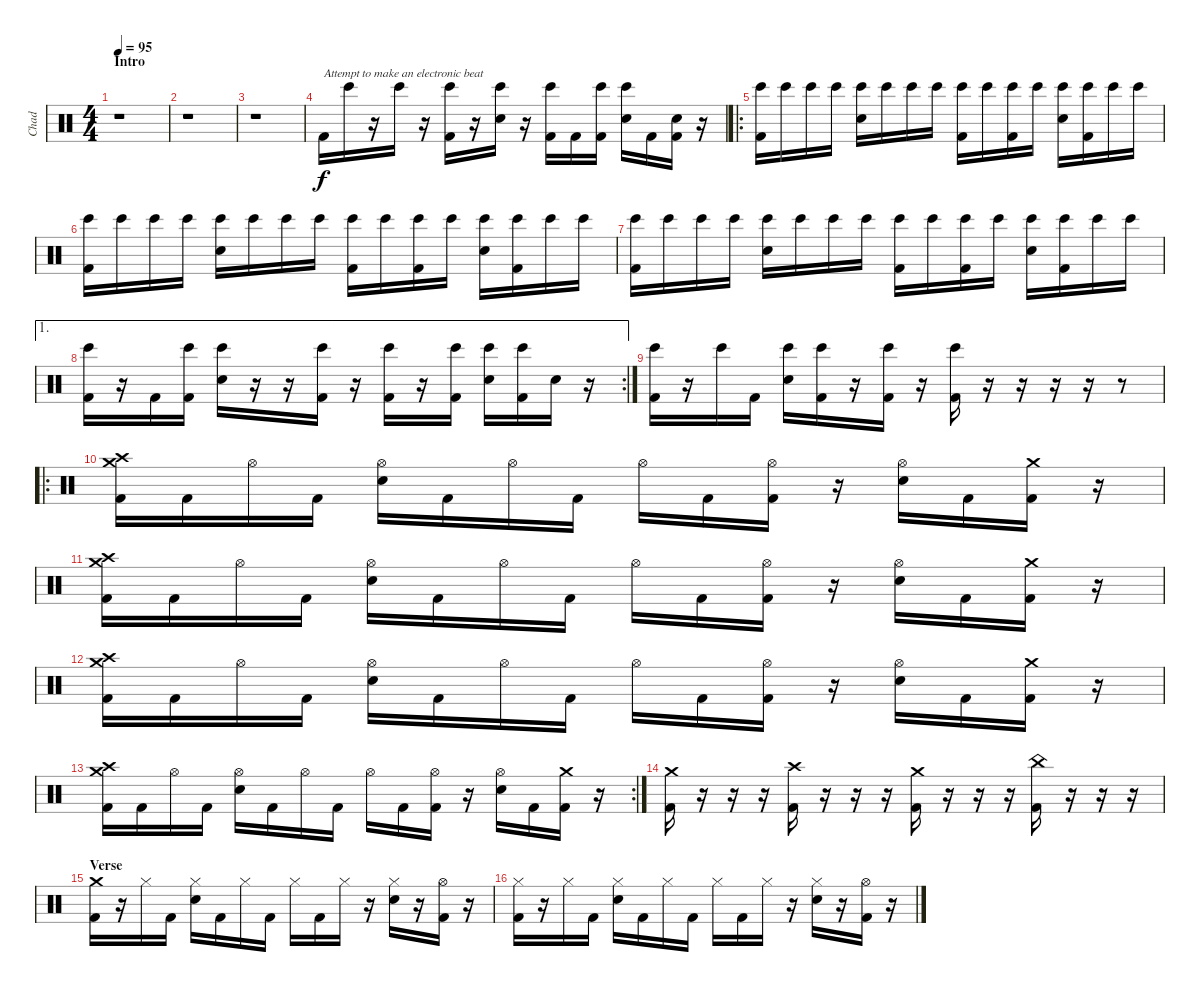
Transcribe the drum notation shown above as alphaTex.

\track ("Chad" "Chad") {instrument percussion}
\staff {score}
\articulation defaults
\ts (4 4)
\section ("" "Intro")
\tempo 95
\clef neutral
\ks c
r.1{dy f} |
r.1 |
r.1 |
"Kick (hit) 2".16{txt "Attempt to make an electronic beat" volume 10} "Bongo High (hit)".16 r.16 "Bongo High (hit)".16 r.16 ("Kick (hit) 2" "Bongo High (hit)").16 r.16 ("Bongo High (hit)" "Electric Snare (hit)").16 r.16 ("Kick (hit) 2" "Bongo High (hit)").16 "Kick (hit) 2".16 ("Kick (hit) 2" "Bongo High (hit)").16 ("Bongo High (hit)" "Electric Snare (hit)").16 "Kick (hit) 2".16 ("Kick (hit) 2" "Electric Snare (hit)").16 r.16 |
\ro
("Kick (hit) 2" "Bongo High (hit)").16{volume 10} "Bongo High (hit)".16 "Bongo High (hit)".16 "Bongo High (hit)".16 ("Electric Snare (hit)" "Bongo High (hit)").16 "Bongo High (hit)".16 "Bongo High (hit)".16 "Bongo High (hit)".16 ("Kick (hit) 2" "Bongo High (hit)").16 "Bongo High (hit)".16 ("Kick (hit) 2" "Bongo High (hit)").16 "Bongo High (hit)".16 ("Electric Snare (hit)" "Bongo High (hit)").16 ("Kick (hit) 2" "Bongo High (hit)").16 "Bongo High (hit)".16 "Bongo High (hit)".16 |
("Kick (hit) 2" "Bongo High (hit)").16 "Bongo High (hit)".16 "Bongo High (hit)".16 "Bongo High (hit)".16 ("Electric Snare (hit)" "Bongo High (hit)").16 "Bongo High (hit)".16 "Bongo High (hit)".16 "Bongo High (hit)".16 ("Kick (hit) 2" "Bongo High (hit)").16 "Bongo High (hit)".16 ("Kick (hit) 2" "Bongo High (hit)").16 "Bongo High (hit)".16 ("Electric Snare (hit)" "Bongo High (hit)").16 ("Kick (hit) 2" "Bongo High (hit)").16 "Bongo High (hit)".16 "Bongo High (hit)".16 |
("Kick (hit) 2" "Bongo High (hit)").16 "Bongo High (hit)".16 "Bongo High (hit)".16 "Bongo High (hit)".16 ("Electric Snare (hit)" "Bongo High (hit)").16 "Bongo High (hit)".16 "Bongo High (hit)".16 "Bongo High (hit)".16 ("Kick (hit) 2" "Bongo High (hit)").16 "Bongo High (hit)".16 ("Kick (hit) 2" "Bongo High (hit)").16 "Bongo High (hit)".16 ("Electric Snare (hit)" "Bongo High (hit)").16 ("Kick (hit) 2" "Bongo High (hit)").16 "Bongo High (hit)".16 "Bongo High (hit)".16 |
\ae 1
\rc 2
("Kick (hit) 2" "Bongo High (hit)").16 r.16 "Kick (hit) 2".16 ("Kick (hit) 2" "Bongo High (hit)").16 ("Snare (hit) 2" "Bongo High (hit)").16 r.16 r.16 ("Kick (hit) 2" "Bongo High (hit)").16 r.16 ("Kick (hit) 2" "Bongo High (hit)").16 r.16 ("Kick (hit) 2" "Bongo High (hit)").16 ("Snare (hit) 2" "Bongo High (hit)").16 ("Kick (hit) 2" "Bongo High (hit)").16 "Snare (hit) 2".16 r.16 |
("Kick (hit) 2" "Bongo High (hit)").16 r.16 "Bongo High (hit)".16 "Kick (hit) 2".16 ("Snare (hit) 2" "Bongo High (hit)").16 ("Kick (hit) 2" "Bongo High (hit)").16 r.16 ("Kick (hit) 2" "Bongo High (hit)").16 r.16 ("Kick (hit) 2" "Bongo High (hit)").16 r.16 r.16 r.16 r.16 r.8 |
\ro
("Kick (hit) 2" "Crash high (hit)" "Crash medium (hit)").16{volume 15} "Kick (hit) 2".16 "Hi-Hat (open)".16 "Kick (hit) 2".16 ("Electric Snare (hit)" "Hi-Hat (open)").16 "Kick (hit) 2".16 "Hi-Hat (open)".16 "Kick (hit) 2".16 "Hi-Hat (open)".16 "Kick (hit) 2".16 ("Kick (hit) 2" "Hi-Hat (open)").16 r.16 ("Electric Snare (hit)" "Hi-Hat (open)").16 "Kick (hit) 2".16 ("Kick (hit) 2" "Crash medium (hit)").16 r.16 |
("Kick (hit) 2" "Crash high (hit)" "Crash medium (hit)").16 "Kick (hit) 2".16 "Hi-Hat (open)".16 "Kick (hit) 2".16 ("Electric Snare (hit)" "Hi-Hat (open)").16 "Kick (hit) 2".16 "Hi-Hat (open)".16 "Kick (hit) 2".16 "Hi-Hat (open)".16 "Kick (hit) 2".16 ("Kick (hit) 2" "Hi-Hat (open)").16 r.16 ("Electric Snare (hit)" "Hi-Hat (open)").16 "Kick (hit) 2".16 ("Kick (hit) 2" "Crash medium (hit)").16 r.16 |
("Kick (hit) 2" "Crash high (hit)" "Crash medium (hit)").16{volume 15} "Kick (hit) 2".16 "Hi-Hat (open)".16 "Kick (hit) 2".16 ("Electric Snare (hit)" "Hi-Hat (open)").16 "Kick (hit) 2".16 "Hi-Hat (open)".16 "Kick (hit) 2".16 "Hi-Hat (open)".16 "Kick (hit) 2".16 ("Kick (hit) 2" "Hi-Hat (open)").16 r.16 ("Electric Snare (hit)" "Hi-Hat (open)").16 "Kick (hit) 2".16 ("Kick (hit) 2" "Crash medium (hit)").16 r.16 |
\rc 2
("Kick (hit) 2" "Crash high (hit)" "Crash medium (hit)").16 "Kick (hit) 2".16 "Hi-Hat (open)".16 "Kick (hit) 2".16 ("Electric Snare (hit)" "Hi-Hat (open)").16 "Kick (hit) 2".16 "Hi-Hat (open)".16 "Kick (hit) 2".16 "Hi-Hat (open)".16 "Kick (hit) 2".16 ("Kick (hit) 2" "Hi-Hat (open)").16 r.16 ("Electric Snare (hit)" "Hi-Hat (open)").16 "Kick (hit) 2".16 ("Kick (hit) 2" "Crash medium (hit)").16 r.16 |
("Kick (hit) 2" "Crash medium (hit)").16 r.16 r.16 r.16 ("Kick (hit) 2" "Crash high (hit)").16 r.16 r.16 r.16 ("Kick (hit) 2" "Crash medium (hit)").16 r.16 r.16 r.16 ("Kick (hit) 2" "China (hit)").16 r.16 r.16 r.16 |
\section ("" "Verse")
("Kick (hit) 2" "Crash medium (hit)").16 r.16 "Hi-Hat (closed)".16 "Kick (hit) 2".16 ("Electric Snare (hit)" "Hi-Hat (closed)").16 "Kick (hit) 2".16 "Hi-Hat (closed)".16 "Kick (hit) 2".16 "Hi-Hat (closed)".16 "Kick (hit) 2".16 "Hi-Hat (closed)".16 r.16 ("Electric Snare (hit)" "Hi-Hat (closed)").16 r.16 ("Kick (hit) 2" "Hi-Hat (open)").16 r.16 |
("Kick (hit) 2" "Hi-Hat (closed)").16 r.16 "Hi-Hat (closed)".16 "Kick (hit) 2".16 ("Electric Snare (hit)" "Hi-Hat (closed)").16 "Kick (hit) 2".16 "Hi-Hat (closed)".16 "Kick (hit) 2".16 "Hi-Hat (closed)".16 "Kick (hit) 2".16 "Hi-Hat (closed)".16 r.16 ("Electric Snare (hit)" "Hi-Hat (closed)").16 r.16 ("Kick (hit) 2" "Hi-Hat (open)").16 r.16
